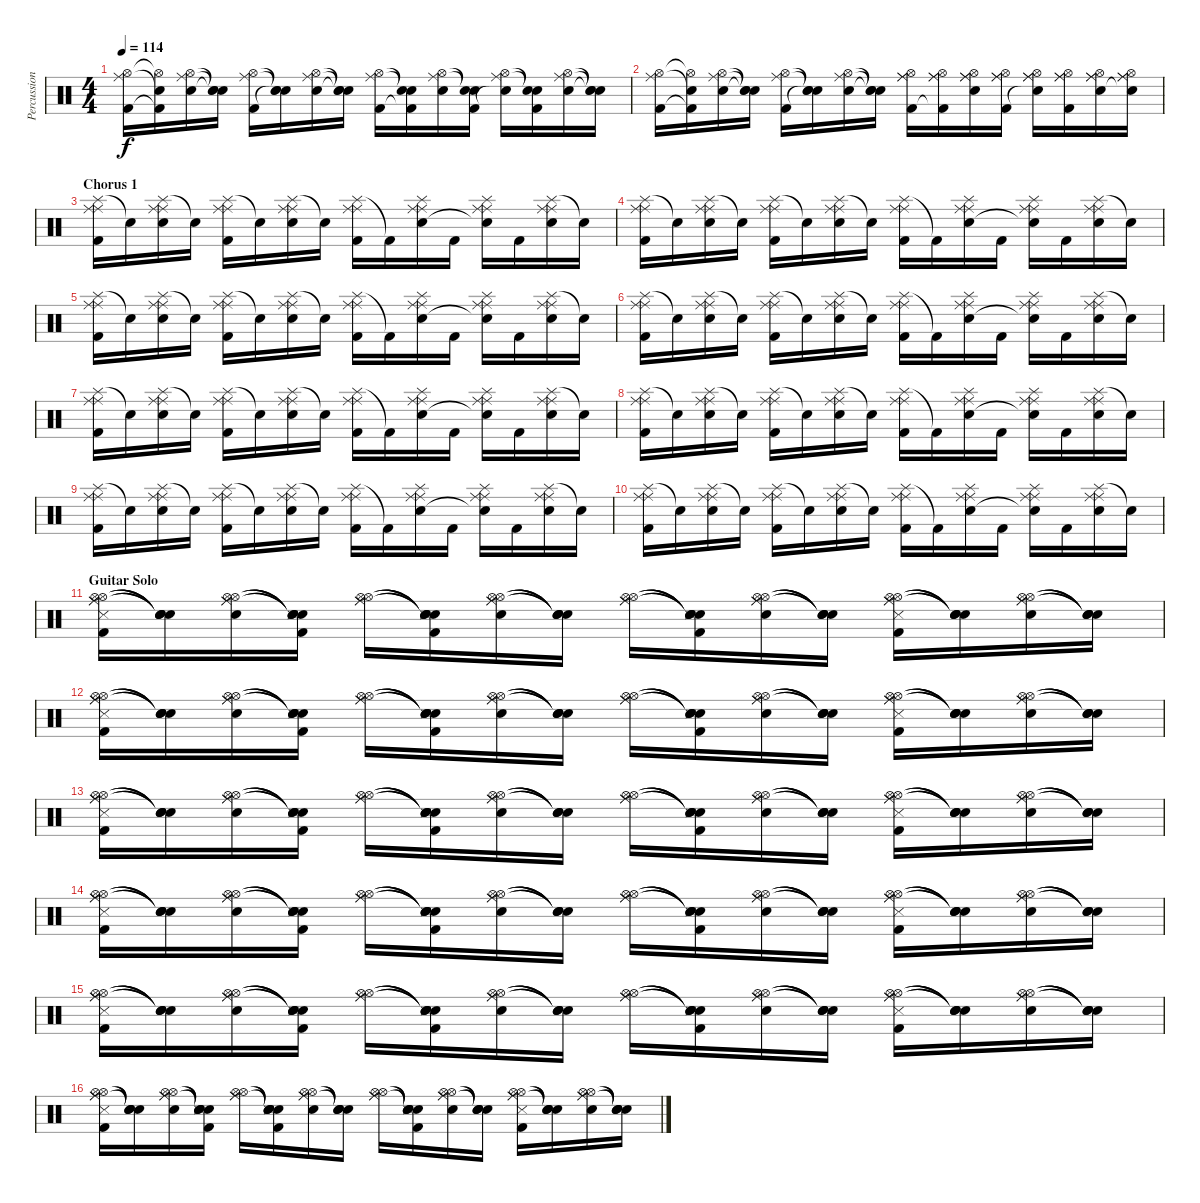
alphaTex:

\track ("Percussion" "Percussion") {instrument percussion}
\staff {score}
\articulation defaults
\ts (4 4)
\tempo 114
\clef neutral
\ks c
("Hi-Hat (open)" "Ride (middle)" "Kick (hit) 2").16{dy f} ("Hi-Hat (open)"{t} "Snare (hit)"{t} "Kick (hit) 2"{t}).16 ("Hi-Hat (open)" "Ride (middle)" "Snare (hit) 2").16 ("Snare (hit)"{t} "Snare (hit)"{t} "Snare (hit)"{t}).16 ("Hi-Hat (open)" "Ride (middle)" "Kick (hit) 2").16 ("Snare (hit)"{t} "Snare (hit)"{t} "Snare (hit)"{t}).16 ("Hi-Hat (open)" "Ride (middle)" "Snare (hit) 2").16 ("Snare (hit)"{t} "Snare (hit)"{t} "Snare (hit)"{t}).16 ("Hi-Hat (open)" "Ride (middle)" "Kick (hit) 2").16 ("Snare (hit)"{t} "Snare (hit)"{t} "Kick (hit) 2"{t}).16 ("Hi-Hat (open)" "Ride (middle)" "Snare (hit) 2").16 ("Snare (hit)"{t} "Snare (hit)"{t} "Kick (hit) 2").16 ("Hi-Hat (open)" "Ride (middle)" "Snare (hit)"{t}).16 ("Snare (hit)"{t} "Snare (hit)"{t} "Kick (hit) 2").16 ("Hi-Hat (open)" "Ride (middle)" "Snare (hit) 2").16 ("Snare (hit)"{t} "Snare (hit)"{t} "Snare (hit)"{t}).16 |
("Hi-Hat (open)" "Ride (middle)" "Kick (hit) 2").16 ("Hi-Hat (open)"{t} "Snare (hit)"{t} "Kick (hit) 2"{t}).16 ("Hi-Hat (open)" "Ride (middle)" "Snare (hit) 2").16 ("Snare (hit)"{t} "Snare (hit)"{t} "Snare (hit)"{t}).16 ("Hi-Hat (open)" "Ride (middle)" "Kick (hit) 2").16 ("Snare (hit)"{t} "Snare (hit)"{t} "Snare (hit)"{t}).16 ("Hi-Hat (open)" "Ride (middle)" "Snare (hit) 2").16 ("Snare (hit)"{t} "Snare (hit)"{t} "Snare (hit)"{t}).16 ("Ride (middle)" "Hi-Hat (open)" "Ride (middle)" "Kick (hit) 2").16 ("Ride (middle)" "Hi-Hat (open)" "Ride (middle)" "Kick (hit) 2"{t}).16 ("Ride (middle)" "Hi-Hat (open)" "Ride (middle)" "Snare (hit) 2").16 ("Ride (middle)" "Hi-Hat (open)" "Ride (middle)" "Kick (hit) 2").16 ("Ride (middle)" "Hi-Hat (open)" "Ride (middle)" "Snare (hit)"{t}).16 ("Ride (middle)" "Hi-Hat (open)" "Ride (middle)" "Kick (hit) 2").16 ("Ride (middle)" "Hi-Hat (open)" "Ride (middle)" "Snare (hit) 2").16 ("Ride (middle)" "Hi-Hat (open)" "Ride (middle)" "Snare (hit)"{t}).16 |
\section ("" "Chorus 1")
("Splash (hit)" "Ride (middle)" "Ride (middle)" "Kick (hit) 2").16 "Snare (hit)"{t}.16 ("Splash (hit)" "Ride (middle)" "Ride (middle)" "Snare (hit) 2").16 "Snare (hit)"{t}.16 ("Splash (hit)" "Ride (middle)" "Ride (middle)" "Kick (hit) 2").16 "Snare (hit)"{t}.16 ("Splash (hit)" "Ride (middle)" "Ride (middle)" "Snare (hit) 2").16 "Snare (hit)"{t}.16 ("Splash (hit)" "Ride (middle)" "Ride (middle)" "Kick (hit) 2").16 "Kick (hit) 2"{t}.16 ("Splash (hit)" "Ride (middle)" "Ride (middle)" "Snare (hit) 2").16 "Kick (hit) 2".16 ("Splash (hit)" "Ride (middle)" "Ride (middle)" "Snare (hit)"{t}).16 "Kick (hit) 2".16 ("Splash (hit)" "Ride (middle)" "Ride (middle)" "Snare (hit) 2").16 "Snare (hit)"{t}.16 |
("Splash (hit)" "Ride (middle)" "Ride (middle)" "Kick (hit) 2").16 "Snare (hit)"{t}.16 ("Splash (hit)" "Ride (middle)" "Ride (middle)" "Snare (hit) 2").16 "Snare (hit)"{t}.16 ("Splash (hit)" "Ride (middle)" "Ride (middle)" "Kick (hit) 2").16 "Snare (hit)"{t}.16 ("Splash (hit)" "Ride (middle)" "Ride (middle)" "Snare (hit) 2").16 "Snare (hit)"{t}.16 ("Splash (hit)" "Ride (middle)" "Ride (middle)" "Kick (hit) 2").16 "Kick (hit) 2"{t}.16 ("Splash (hit)" "Ride (middle)" "Ride (middle)" "Snare (hit) 2").16 "Kick (hit) 2".16 ("Splash (hit)" "Ride (middle)" "Ride (middle)" "Snare (hit)"{t}).16 "Kick (hit) 2".16 ("Splash (hit)" "Ride (middle)" "Ride (middle)" "Snare (hit) 2").16 "Snare (hit)"{t}.16 |
("Splash (hit)" "Ride (middle)" "Ride (middle)" "Kick (hit) 2").16 "Snare (hit)"{t}.16 ("Splash (hit)" "Ride (middle)" "Ride (middle)" "Snare (hit) 2").16 "Snare (hit)"{t}.16 ("Splash (hit)" "Ride (middle)" "Ride (middle)" "Kick (hit) 2").16 "Snare (hit)"{t}.16 ("Splash (hit)" "Ride (middle)" "Ride (middle)" "Snare (hit) 2").16 "Snare (hit)"{t}.16 ("Splash (hit)" "Ride (middle)" "Ride (middle)" "Kick (hit) 2").16 "Kick (hit) 2"{t}.16 ("Splash (hit)" "Ride (middle)" "Ride (middle)" "Snare (hit) 2").16 "Kick (hit) 2".16 ("Splash (hit)" "Ride (middle)" "Ride (middle)" "Snare (hit)"{t}).16 "Kick (hit) 2".16 ("Splash (hit)" "Ride (middle)" "Ride (middle)" "Snare (hit) 2").16 "Snare (hit)"{t}.16 |
("Splash (hit)" "Ride (middle)" "Ride (middle)" "Kick (hit) 2").16 "Snare (hit)"{t}.16 ("Splash (hit)" "Ride (middle)" "Ride (middle)" "Snare (hit) 2").16 "Snare (hit)"{t}.16 ("Splash (hit)" "Ride (middle)" "Ride (middle)" "Kick (hit) 2").16 "Snare (hit)"{t}.16 ("Splash (hit)" "Ride (middle)" "Ride (middle)" "Snare (hit) 2").16 "Snare (hit)"{t}.16 ("Splash (hit)" "Ride (middle)" "Ride (middle)" "Kick (hit) 2").16 "Kick (hit) 2"{t}.16 ("Splash (hit)" "Ride (middle)" "Ride (middle)" "Snare (hit) 2").16 "Kick (hit) 2".16 ("Splash (hit)" "Ride (middle)" "Ride (middle)" "Snare (hit)"{t}).16 "Kick (hit) 2".16 ("Splash (hit)" "Ride (middle)" "Ride (middle)" "Snare (hit) 2").16 "Snare (hit)"{t}.16 |
("Splash (hit)" "Ride (middle)" "Ride (middle)" "Kick (hit) 2").16 "Snare (hit)"{t}.16 ("Splash (hit)" "Ride (middle)" "Ride (middle)" "Snare (hit) 2").16 "Snare (hit)"{t}.16 ("Splash (hit)" "Ride (middle)" "Ride (middle)" "Kick (hit) 2").16 "Snare (hit)"{t}.16 ("Splash (hit)" "Ride (middle)" "Ride (middle)" "Snare (hit) 2").16 "Snare (hit)"{t}.16 ("Splash (hit)" "Ride (middle)" "Ride (middle)" "Kick (hit) 2").16 "Kick (hit) 2"{t}.16 ("Splash (hit)" "Ride (middle)" "Ride (middle)" "Snare (hit) 2").16 "Kick (hit) 2".16 ("Splash (hit)" "Ride (middle)" "Ride (middle)" "Snare (hit)"{t}).16 "Kick (hit) 2".16 ("Splash (hit)" "Ride (middle)" "Ride (middle)" "Snare (hit) 2").16 "Snare (hit)"{t}.16 |
("Splash (hit)" "Ride (middle)" "Ride (middle)" "Kick (hit) 2").16 "Snare (hit)"{t}.16 ("Splash (hit)" "Ride (middle)" "Ride (middle)" "Snare (hit) 2").16 "Snare (hit)"{t}.16 ("Splash (hit)" "Ride (middle)" "Ride (middle)" "Kick (hit) 2").16 "Snare (hit)"{t}.16 ("Splash (hit)" "Ride (middle)" "Ride (middle)" "Snare (hit) 2").16 "Snare (hit)"{t}.16 ("Splash (hit)" "Ride (middle)" "Ride (middle)" "Kick (hit) 2").16 "Kick (hit) 2"{t}.16 ("Splash (hit)" "Ride (middle)" "Ride (middle)" "Snare (hit) 2").16 "Kick (hit) 2".16 ("Splash (hit)" "Ride (middle)" "Ride (middle)" "Snare (hit)"{t}).16 "Kick (hit) 2".16 ("Splash (hit)" "Ride (middle)" "Ride (middle)" "Snare (hit) 2").16 "Snare (hit)"{t}.16 |
("Splash (hit)" "Ride (middle)" "Ride (middle)" "Kick (hit) 2").16 "Snare (hit)"{t}.16 ("Splash (hit)" "Ride (middle)" "Ride (middle)" "Snare (hit) 2").16 "Snare (hit)"{t}.16 ("Splash (hit)" "Ride (middle)" "Ride (middle)" "Kick (hit) 2").16 "Snare (hit)"{t}.16 ("Splash (hit)" "Ride (middle)" "Ride (middle)" "Snare (hit) 2").16 "Snare (hit)"{t}.16 ("Splash (hit)" "Ride (middle)" "Ride (middle)" "Kick (hit) 2").16 "Kick (hit) 2"{t}.16 ("Splash (hit)" "Ride (middle)" "Ride (middle)" "Snare (hit) 2").16 "Kick (hit) 2".16 ("Splash (hit)" "Ride (middle)" "Ride (middle)" "Snare (hit)"{t}).16 "Kick (hit) 2".16 ("Splash (hit)" "Ride (middle)" "Ride (middle)" "Snare (hit) 2").16 "Snare (hit)"{t}.16 |
("Splash (hit)" "Ride (middle)" "Ride (middle)" "Kick (hit) 2").16 "Snare (hit)"{t}.16 ("Splash (hit)" "Ride (middle)" "Ride (middle)" "Snare (hit) 2").16 "Snare (hit)"{t}.16 ("Splash (hit)" "Ride (middle)" "Ride (middle)" "Kick (hit) 2").16 "Snare (hit)"{t}.16 ("Splash (hit)" "Ride (middle)" "Ride (middle)" "Snare (hit) 2").16 "Snare (hit)"{t}.16 ("Splash (hit)" "Ride (middle)" "Ride (middle)" "Kick (hit) 2").16 "Kick (hit) 2"{t}.16 ("Splash (hit)" "Ride (middle)" "Ride (middle)" "Snare (hit) 2").16 "Kick (hit) 2".16 ("Splash (hit)" "Ride (middle)" "Ride (middle)" "Snare (hit)"{t}).16 "Kick (hit) 2".16 ("Splash (hit)" "Ride (middle)" "Ride (middle)" "Snare (hit) 2").16 "Snare (hit)"{t}.16 |
\section ("" "Guitar Solo")
("Ride (middle)" "Hi-Hat (open)" "Hi-Hat (open)" "Ride (middle)" "Snare (side stick) 3" "Kick (hit) 2").16 ("Snare (hit)"{t} "Snare (hit)"{t} "Snare (hit)"{t} "Snare (hit)"{t}).16 ("Ride (middle)" "Hi-Hat (open)" "Hi-Hat (open)" "Ride (middle)" "Snare (hit) 2").16 ("Snare (hit)"{t} "Snare (hit)"{t} "Snare (hit)"{t} "Snare (hit)"{t} "Snare (side stick) 3" "Kick (hit) 2").16 ("Ride (middle)" "Hi-Hat (open)" "Hi-Hat (open)" "Ride (middle)").16 ("Snare (hit)"{t} "Snare (hit)"{t} "Snare (hit)"{t} "Snare (hit)"{t} "Snare (side stick) 3" "Kick (hit) 2").16 ("Ride (middle)" "Hi-Hat (open)" "Hi-Hat (open)" "Ride (middle)" "Snare (hit) 2").16 ("Snare (hit)"{t} "Snare (hit)"{t} "Snare (hit)"{t} "Snare (hit)"{t}).16 ("Ride (middle)" "Hi-Hat (open)" "Hi-Hat (open)" "Ride (middle)").16 ("Snare (hit)"{t} "Snare (hit)"{t} "Snare (hit)"{t} "Snare (hit)"{t} "Snare (side stick) 3" "Kick (hit) 2").16 ("Ride (middle)" "Hi-Hat (open)" "Hi-Hat (open)" "Ride (middle)" "Snare (hit) 2").16 ("Snare (hit)"{t} "Snare (hit)"{t} "Snare (hit)"{t} "Snare (hit)"{t}).16 ("Ride (middle)" "Hi-Hat (open)" "Hi-Hat (open)" "Ride (middle)" "Snare (side stick) 3" "Kick (hit) 2").16 ("Snare (hit)"{t} "Snare (hit)"{t} "Snare (hit)"{t} "Snare (hit)"{t}).16 ("Ride (middle)" "Hi-Hat (open)" "Hi-Hat (open)" "Ride (middle)" "Snare (hit) 2").16 ("Snare (hit)"{t} "Snare (hit)"{t} "Snare (hit)"{t} "Snare (hit)"{t}).16 |
("Ride (middle)" "Hi-Hat (open)" "Hi-Hat (open)" "Ride (middle)" "Snare (side stick) 3" "Kick (hit) 2").16 ("Snare (hit)"{t} "Snare (hit)"{t} "Snare (hit)"{t} "Snare (hit)"{t}).16 ("Ride (middle)" "Hi-Hat (open)" "Hi-Hat (open)" "Ride (middle)" "Snare (hit) 2").16 ("Snare (hit)"{t} "Snare (hit)"{t} "Snare (hit)"{t} "Snare (hit)"{t} "Snare (side stick) 3" "Kick (hit) 2").16 ("Ride (middle)" "Hi-Hat (open)" "Hi-Hat (open)" "Ride (middle)").16 ("Snare (hit)"{t} "Snare (hit)"{t} "Snare (hit)"{t} "Snare (hit)"{t} "Snare (side stick) 3" "Kick (hit) 2").16 ("Ride (middle)" "Hi-Hat (open)" "Hi-Hat (open)" "Ride (middle)" "Snare (hit) 2").16 ("Snare (hit)"{t} "Snare (hit)"{t} "Snare (hit)"{t} "Snare (hit)"{t}).16 ("Ride (middle)" "Hi-Hat (open)" "Hi-Hat (open)" "Ride (middle)").16 ("Snare (hit)"{t} "Snare (hit)"{t} "Snare (hit)"{t} "Snare (hit)"{t} "Snare (side stick) 3" "Kick (hit) 2").16 ("Ride (middle)" "Hi-Hat (open)" "Hi-Hat (open)" "Ride (middle)" "Snare (hit) 2").16 ("Snare (hit)"{t} "Snare (hit)"{t} "Snare (hit)"{t} "Snare (hit)"{t}).16 ("Ride (middle)" "Hi-Hat (open)" "Hi-Hat (open)" "Ride (middle)" "Snare (side stick) 3" "Kick (hit) 2").16 ("Snare (hit)"{t} "Snare (hit)"{t} "Snare (hit)"{t} "Snare (hit)"{t}).16 ("Ride (middle)" "Hi-Hat (open)" "Hi-Hat (open)" "Ride (middle)" "Snare (hit) 2").16 ("Snare (hit)"{t} "Snare (hit)"{t} "Snare (hit)"{t} "Snare (hit)"{t}).16 |
("Ride (middle)" "Hi-Hat (open)" "Hi-Hat (open)" "Ride (middle)" "Snare (side stick) 3" "Kick (hit) 2").16 ("Snare (hit)"{t} "Snare (hit)"{t} "Snare (hit)"{t} "Snare (hit)"{t}).16 ("Ride (middle)" "Hi-Hat (open)" "Hi-Hat (open)" "Ride (middle)" "Snare (hit) 2").16 ("Snare (hit)"{t} "Snare (hit)"{t} "Snare (hit)"{t} "Snare (hit)"{t} "Snare (side stick) 3" "Kick (hit) 2").16 ("Ride (middle)" "Hi-Hat (open)" "Hi-Hat (open)" "Ride (middle)").16 ("Snare (hit)"{t} "Snare (hit)"{t} "Snare (hit)"{t} "Snare (hit)"{t} "Snare (side stick) 3" "Kick (hit) 2").16 ("Ride (middle)" "Hi-Hat (open)" "Hi-Hat (open)" "Ride (middle)" "Snare (hit) 2").16 ("Snare (hit)"{t} "Snare (hit)"{t} "Snare (hit)"{t} "Snare (hit)"{t}).16 ("Ride (middle)" "Hi-Hat (open)" "Hi-Hat (open)" "Ride (middle)").16 ("Snare (hit)"{t} "Snare (hit)"{t} "Snare (hit)"{t} "Snare (hit)"{t} "Snare (side stick) 3" "Kick (hit) 2").16 ("Ride (middle)" "Hi-Hat (open)" "Hi-Hat (open)" "Ride (middle)" "Snare (hit) 2").16 ("Snare (hit)"{t} "Snare (hit)"{t} "Snare (hit)"{t} "Snare (hit)"{t}).16 ("Ride (middle)" "Hi-Hat (open)" "Hi-Hat (open)" "Ride (middle)" "Snare (side stick) 3" "Kick (hit) 2").16 ("Snare (hit)"{t} "Snare (hit)"{t} "Snare (hit)"{t} "Snare (hit)"{t}).16 ("Ride (middle)" "Hi-Hat (open)" "Hi-Hat (open)" "Ride (middle)" "Snare (hit) 2").16 ("Snare (hit)"{t} "Snare (hit)"{t} "Snare (hit)"{t} "Snare (hit)"{t}).16 |
("Ride (middle)" "Hi-Hat (open)" "Hi-Hat (open)" "Ride (middle)" "Snare (side stick) 3" "Kick (hit) 2").16 ("Snare (hit)"{t} "Snare (hit)"{t} "Snare (hit)"{t} "Snare (hit)"{t}).16 ("Ride (middle)" "Hi-Hat (open)" "Hi-Hat (open)" "Ride (middle)" "Snare (hit) 2").16 ("Snare (hit)"{t} "Snare (hit)"{t} "Snare (hit)"{t} "Snare (hit)"{t} "Snare (side stick) 3" "Kick (hit) 2").16 ("Ride (middle)" "Hi-Hat (open)" "Hi-Hat (open)" "Ride (middle)").16 ("Snare (hit)"{t} "Snare (hit)"{t} "Snare (hit)"{t} "Snare (hit)"{t} "Snare (side stick) 3" "Kick (hit) 2").16 ("Ride (middle)" "Hi-Hat (open)" "Hi-Hat (open)" "Ride (middle)" "Snare (hit) 2").16 ("Snare (hit)"{t} "Snare (hit)"{t} "Snare (hit)"{t} "Snare (hit)"{t}).16 ("Ride (middle)" "Hi-Hat (open)" "Hi-Hat (open)" "Ride (middle)").16 ("Snare (hit)"{t} "Snare (hit)"{t} "Snare (hit)"{t} "Snare (hit)"{t} "Snare (side stick) 3" "Kick (hit) 2").16 ("Ride (middle)" "Hi-Hat (open)" "Hi-Hat (open)" "Ride (middle)" "Snare (hit) 2").16 ("Snare (hit)"{t} "Snare (hit)"{t} "Snare (hit)"{t} "Snare (hit)"{t}).16 ("Ride (middle)" "Hi-Hat (open)" "Hi-Hat (open)" "Ride (middle)" "Snare (side stick) 3" "Kick (hit) 2").16 ("Snare (hit)"{t} "Snare (hit)"{t} "Snare (hit)"{t} "Snare (hit)"{t}).16 ("Ride (middle)" "Hi-Hat (open)" "Hi-Hat (open)" "Ride (middle)" "Snare (hit) 2").16 ("Snare (hit)"{t} "Snare (hit)"{t} "Snare (hit)"{t} "Snare (hit)"{t}).16 |
("Ride (middle)" "Hi-Hat (open)" "Hi-Hat (open)" "Ride (middle)" "Snare (side stick) 3" "Kick (hit) 2").16 ("Snare (hit)"{t} "Snare (hit)"{t} "Snare (hit)"{t} "Snare (hit)"{t}).16 ("Ride (middle)" "Hi-Hat (open)" "Hi-Hat (open)" "Ride (middle)" "Snare (hit) 2").16 ("Snare (hit)"{t} "Snare (hit)"{t} "Snare (hit)"{t} "Snare (hit)"{t} "Snare (side stick) 3" "Kick (hit) 2").16 ("Ride (middle)" "Hi-Hat (open)" "Hi-Hat (open)" "Ride (middle)").16 ("Snare (hit)"{t} "Snare (hit)"{t} "Snare (hit)"{t} "Snare (hit)"{t} "Snare (side stick) 3" "Kick (hit) 2").16 ("Ride (middle)" "Hi-Hat (open)" "Hi-Hat (open)" "Ride (middle)" "Snare (hit) 2").16 ("Snare (hit)"{t} "Snare (hit)"{t} "Snare (hit)"{t} "Snare (hit)"{t}).16 ("Ride (middle)" "Hi-Hat (open)" "Hi-Hat (open)" "Ride (middle)").16 ("Snare (hit)"{t} "Snare (hit)"{t} "Snare (hit)"{t} "Snare (hit)"{t} "Snare (side stick) 3" "Kick (hit) 2").16 ("Ride (middle)" "Hi-Hat (open)" "Hi-Hat (open)" "Ride (middle)" "Snare (hit) 2").16 ("Snare (hit)"{t} "Snare (hit)"{t} "Snare (hit)"{t} "Snare (hit)"{t}).16 ("Ride (middle)" "Hi-Hat (open)" "Hi-Hat (open)" "Ride (middle)" "Snare (side stick) 3" "Kick (hit) 2").16 ("Snare (hit)"{t} "Snare (hit)"{t} "Snare (hit)"{t} "Snare (hit)"{t}).16 ("Ride (middle)" "Hi-Hat (open)" "Hi-Hat (open)" "Ride (middle)" "Snare (hit) 2").16 ("Snare (hit)"{t} "Snare (hit)"{t} "Snare (hit)"{t} "Snare (hit)"{t}).16 |
("Ride (middle)" "Hi-Hat (open)" "Hi-Hat (open)" "Ride (middle)" "Snare (side stick) 3" "Kick (hit) 2").16 ("Snare (hit)"{t} "Snare (hit)"{t} "Snare (hit)"{t} "Snare (hit)"{t}).16 ("Ride (middle)" "Hi-Hat (open)" "Hi-Hat (open)" "Ride (middle)" "Snare (hit) 2").16 ("Snare (hit)"{t} "Snare (hit)"{t} "Snare (hit)"{t} "Snare (hit)"{t} "Snare (side stick) 3" "Kick (hit) 2").16 ("Ride (middle)" "Hi-Hat (open)" "Hi-Hat (open)" "Ride (middle)").16 ("Snare (hit)"{t} "Snare (hit)"{t} "Snare (hit)"{t} "Snare (hit)"{t} "Snare (side stick) 3" "Kick (hit) 2").16 ("Ride (middle)" "Hi-Hat (open)" "Hi-Hat (open)" "Ride (middle)" "Snare (hit) 2").16 ("Snare (hit)"{t} "Snare (hit)"{t} "Snare (hit)"{t} "Snare (hit)"{t}).16 ("Ride (middle)" "Hi-Hat (open)" "Hi-Hat (open)" "Ride (middle)").16 ("Snare (hit)"{t} "Snare (hit)"{t} "Snare (hit)"{t} "Snare (hit)"{t} "Snare (side stick) 3" "Kick (hit) 2").16 ("Ride (middle)" "Hi-Hat (open)" "Hi-Hat (open)" "Ride (middle)" "Snare (hit) 2").16 ("Snare (hit)"{t} "Snare (hit)"{t} "Snare (hit)"{t} "Snare (hit)"{t}).16 ("Ride (middle)" "Hi-Hat (open)" "Hi-Hat (open)" "Ride (middle)" "Snare (side stick) 3" "Kick (hit) 2").16 ("Snare (hit)"{t} "Snare (hit)"{t} "Snare (hit)"{t} "Snare (hit)"{t}).16 ("Ride (middle)" "Hi-Hat (open)" "Hi-Hat (open)" "Ride (middle)" "Snare (hit) 2").16 ("Snare (hit)"{t} "Snare (hit)"{t} "Snare (hit)"{t} "Snare (hit)"{t}).16
